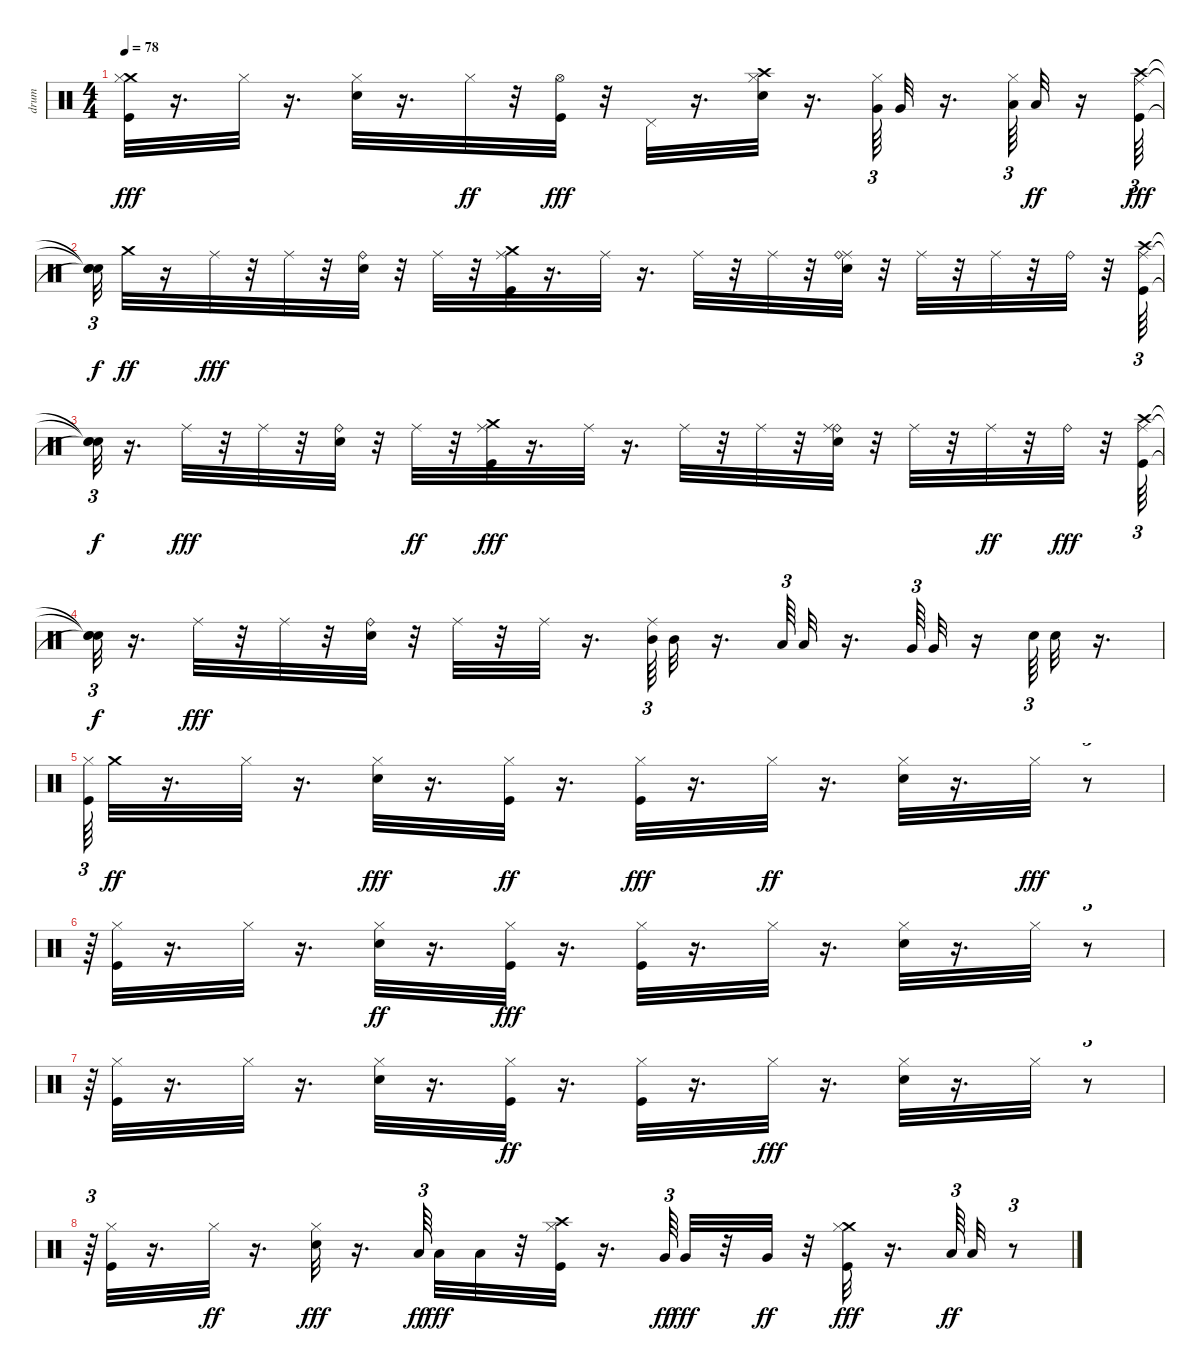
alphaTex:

\track ("drum" "drum") {instrument percussion}
\staff {score}
\articulation defaults
\ts (4 4)
\tempo 78
\clef neutral
\ks c
("Crash medium (hit)" "Kick (hit)" "Hi-Hat (closed)").32{dy fff} r.16{d} "Hi-Hat (closed)".32 r.16{d} ("Electric Snare (hit)" "Hi-Hat (closed)").32 r.16{d} "Hi-Hat (closed)".32{dy ff} r.32 ("Kick (hit)" "Hi-Hat (open)").32{dy fff} r.32 "Pedal Hi-Hat (hit)".32 r.16{d} ("Crash high (hit)" "Electric Snare (hit)" "Hi-Hat (closed)").32 r.16{d} ("Very Low Tom (hit)" "Hi-Hat (closed)").64{tu (3 2)} "Very Low Tom (hit)".32 r.16{d} ("Low Floor Tom (hit)" "Hi-Hat (closed)").64{tu (3 2)} "Low Floor Tom (hit)".32{dy ff} r.16 ("Ride (middle)" "Crash high (hit)" "Kick (hit)").64{tu (3 2) dy fff} |
("Snare (hit)"{t} "Snare (hit)"{t} "Snare (hit)"{t}).32{tu (3 2) dy f} "Crash medium (hit)".32{dy ff} r.16 "Ride (middle)".32{dy fff} r.32 "Ride (middle)".32 r.32 ("Ride (bell)" "Electric Snare (hit)").32 r.32 "Ride (middle)".32 r.32 ("Ride (middle)" "Crash medium (hit)" "Kick (hit)").32 r.16{d} "Ride (middle)".32 r.16{d} "Ride (middle)".32 r.32 "Ride (middle)".32 r.32 ("Ride (middle)" "Ride (bell)" "Electric Snare (hit)").32 r.32 "Ride (middle)".32 r.32 "Ride (middle)".32 r.32 "Ride (bell)".32 r.32 ("Ride (middle)" "Crash high (hit)" "Kick (hit)").64{tu (3 2)} |
("Snare (hit)"{t} "Snare (hit)"{t} "Snare (hit)"{t}).32{tu (3 2) dy f} r.16{d} "Ride (middle)".32{dy fff} r.32 "Ride (middle)".32 r.32 ("Ride (bell)" "Electric Snare (hit)").32 r.32 "Ride (middle)".32{dy ff} r.32 ("Ride (middle)" "Crash medium (hit)" "Kick (hit)").32{dy fff} r.16{d} "Ride (middle)".32 r.16{d} "Ride (middle)".32 r.32 "Ride (middle)".32 r.32 ("Ride (bell)" "Ride (middle)" "Electric Snare (hit)").32 r.32 "Ride (middle)".32 r.32 "Ride (middle)".32{dy ff} r.32 "Ride (bell)".32{dy fff} r.32 ("Ride (middle)" "Crash high (hit)" "Kick (hit)").64{tu (3 2)} |
("Snare (hit)"{t} "Snare (hit)"{t} "Snare (hit)"{t}).32{tu (3 2) dy f} r.16{d} "Ride (middle)".32{dy fff} r.32 "Ride (middle)".32 r.32 ("Ride (bell)" "Electric Snare (hit)").32 r.32 "Ride (middle)".32 r.32 "Ride (middle)".32 r.16{d} ("Ride (middle)" "Mid Tom (hit)").64{tu (3 2)} "Mid Tom (hit)".32 r.16{d} "Low Tom (hit)".64{tu (3 2)} "Low Tom (hit)".32 r.16{d} "Very Low Tom (hit)".64{tu (3 2)} "Very Low Tom (hit)".32 r.16 "Electric Snare (hit)".64{tu (3 2)} "Electric Snare (hit)".32 r.16{d} |
("Kick (hit)" "Hi-Hat (closed)").64{tu (3 2)} "Crash medium (hit)".32{dy ff} r.16{d} "Hi-Hat (closed)".32 r.16{d} ("Electric Snare (hit)" "Hi-Hat (closed)").32{dy fff} r.16{d} ("Kick (hit)" "Hi-Hat (closed)").32{dy ff} r.16{d} ("Kick (hit)" "Hi-Hat (closed)").32{dy fff} r.16{d} "Hi-Hat (closed)".32{dy ff} r.16{d} ("Electric Snare (hit)" "Hi-Hat (closed)").32 r.16{d} "Hi-Hat (closed)".32{dy fff} r.8{tu (3 2)} |
r.64{tu (3 2)} ("Kick (hit)" "Hi-Hat (closed)").32 r.16{d} "Hi-Hat (closed)".32 r.16{d} ("Electric Snare (hit)" "Hi-Hat (closed)").32{dy ff} r.16{d} ("Kick (hit)" "Hi-Hat (closed)").32{dy fff} r.16{d} ("Kick (hit)" "Hi-Hat (closed)").32 r.16{d} "Hi-Hat (closed)".32 r.16{d} ("Electric Snare (hit)" "Hi-Hat (closed)").32 r.16{d} "Hi-Hat (closed)".32 r.8{tu (3 2)} |
r.64{tu (3 2)} ("Kick (hit)" "Hi-Hat (closed)").32 r.16{d} "Hi-Hat (closed)".32 r.16{d} ("Electric Snare (hit)" "Hi-Hat (closed)").32 r.16{d} ("Kick (hit)" "Hi-Hat (closed)").32{dy ff} r.16{d} ("Kick (hit)" "Hi-Hat (closed)").32 r.16{d} "Hi-Hat (closed)".32{dy fff} r.16{d} ("Electric Snare (hit)" "Hi-Hat (closed)").32 r.16{d} "Hi-Hat (closed)".32 r.8{tu (3 2)} |
r.64{tu (3 2)} ("Kick (hit)" "Hi-Hat (closed)").32 r.16{d} "Hi-Hat (closed)".32{dy ff} r.16{d} ("Electric Snare (hit)" "Hi-Hat (closed)").32{dy fff} r.16{d} "Low Tom (hit)".64{tu (3 2) dy ff} "Low Tom (hit)".32{dy fff} "Low Tom (hit)".32 r.32 ("Crash high (hit)" "Kick (hit)" "Hi-Hat (closed)").32 r.16{d} "Very Low Tom (hit)".64{tu (3 2) dy ff} "Very Low Tom (hit)".32{dy fff} r.32 "Very Low Tom (hit)".32{dy ff} r.32 ("Crash medium (hit)" "Kick (hit)" "Hi-Hat (closed)").32{dy fff} r.16{d} "Low Floor Tom (hit)".64{tu (3 2) dy ff} "Low Floor Tom (hit)".32 r.8{tu (3 2)}
